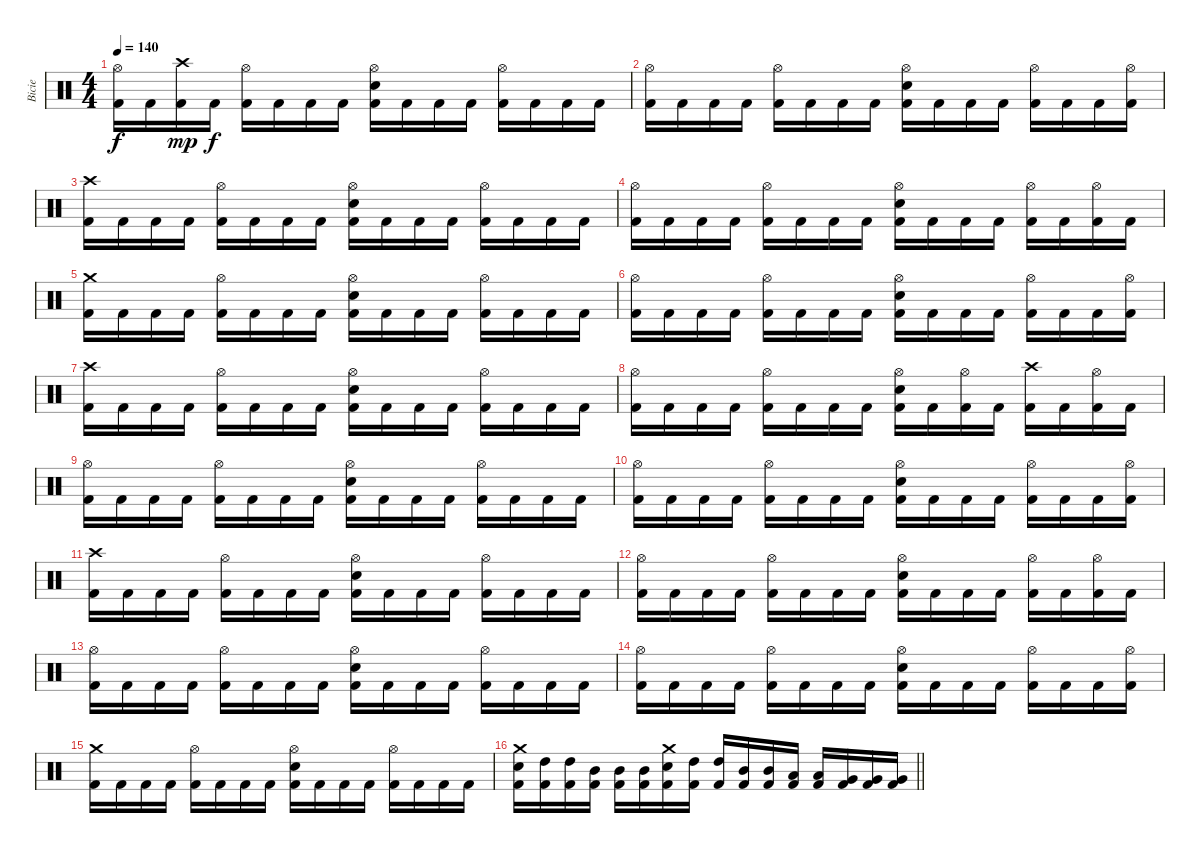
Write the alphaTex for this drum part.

\track ("Bicie" "Bicie") {instrument percussion}
\staff {score}
\articulation defaults
\ts (4 4)
\tempo 140
\clef neutral
\ks c
("Hi-Hat (open)" "Kick (hit) 2").16{dy f} "Kick (hit) 2".16 ("Crash high (hit)" "Kick (hit) 2").16{dy mp} "Kick (hit) 2".16{dy f} ("Hi-Hat (open)" "Kick (hit) 2").16 "Kick (hit) 2".16 "Kick (hit) 2".16 "Kick (hit) 2".16 ("Hi-Hat (open)" "Snare (hit) 2" "Kick (hit) 2").16 "Kick (hit) 2".16 "Kick (hit) 2".16 "Kick (hit) 2".16 ("Hi-Hat (open)" "Kick (hit) 2").16 "Kick (hit) 2".16 "Kick (hit) 2".16 "Kick (hit) 2".16 |
("Hi-Hat (open)" "Kick (hit) 2").16 "Kick (hit) 2".16 "Kick (hit) 2".16 "Kick (hit) 2".16 ("Hi-Hat (open)" "Kick (hit) 2").16 "Kick (hit) 2".16 "Kick (hit) 2".16 "Kick (hit) 2".16 ("Hi-Hat (open)" "Snare (hit) 2" "Kick (hit) 2").16 "Kick (hit) 2".16 "Kick (hit) 2".16 "Kick (hit) 2".16 ("Hi-Hat (open)" "Kick (hit) 2").16 "Kick (hit) 2".16 "Kick (hit) 2".16 ("Hi-Hat (open)" "Kick (hit) 2").16 |
("Crash high (hit)" "Kick (hit) 2").16 "Kick (hit) 2".16 "Kick (hit) 2".16 "Kick (hit) 2".16 ("Hi-Hat (open)" "Kick (hit) 2").16 "Kick (hit) 2".16 "Kick (hit) 2".16 "Kick (hit) 2".16 ("Hi-Hat (open)" "Snare (hit) 2" "Kick (hit) 2").16 "Kick (hit) 2".16 "Kick (hit) 2".16 "Kick (hit) 2".16 ("Hi-Hat (open)" "Kick (hit) 2").16 "Kick (hit) 2".16 "Kick (hit) 2".16 "Kick (hit) 2".16 |
("Hi-Hat (open)" "Kick (hit) 2").16 "Kick (hit) 2".16 "Kick (hit) 2".16 "Kick (hit) 2".16 ("Hi-Hat (open)" "Kick (hit) 2").16 "Kick (hit) 2".16 "Kick (hit) 2".16 "Kick (hit) 2".16 ("Hi-Hat (open)" "Snare (hit) 2" "Kick (hit) 2").16 "Kick (hit) 2".16 "Kick (hit) 2".16 "Kick (hit) 2".16 ("Hi-Hat (open)" "Kick (hit) 2").16 "Kick (hit) 2".16 ("Hi-Hat (open)" "Kick (hit) 2").16 "Kick (hit) 2".16 |
("Crash medium (hit)" "Kick (hit) 2").16 "Kick (hit) 2".16 "Kick (hit) 2".16 "Kick (hit) 2".16 ("Hi-Hat (open)" "Kick (hit) 2").16 "Kick (hit) 2".16 "Kick (hit) 2".16 "Kick (hit) 2".16 ("Hi-Hat (open)" "Snare (hit) 2" "Kick (hit) 2").16 "Kick (hit) 2".16 "Kick (hit) 2".16 "Kick (hit) 2".16 ("Hi-Hat (open)" "Kick (hit) 2").16 "Kick (hit) 2".16 "Kick (hit) 2".16 "Kick (hit) 2".16 |
("Hi-Hat (open)" "Kick (hit) 2").16 "Kick (hit) 2".16 "Kick (hit) 2".16 "Kick (hit) 2".16 ("Hi-Hat (open)" "Kick (hit) 2").16 "Kick (hit) 2".16 "Kick (hit) 2".16 "Kick (hit) 2".16 ("Hi-Hat (open)" "Snare (hit) 2" "Kick (hit) 2").16 "Kick (hit) 2".16 "Kick (hit) 2".16 "Kick (hit) 2".16 ("Hi-Hat (open)" "Kick (hit) 2").16 "Kick (hit) 2".16 "Kick (hit) 2".16 ("Hi-Hat (open)" "Kick (hit) 2").16 |
("Crash high (hit)" "Kick (hit) 2").16 "Kick (hit) 2".16 "Kick (hit) 2".16 "Kick (hit) 2".16 ("Hi-Hat (open)" "Kick (hit) 2").16 "Kick (hit) 2".16 "Kick (hit) 2".16 "Kick (hit) 2".16 ("Hi-Hat (open)" "Snare (hit) 2" "Kick (hit) 2").16 "Kick (hit) 2".16 "Kick (hit) 2".16 "Kick (hit) 2".16 ("Hi-Hat (open)" "Kick (hit) 2").16 "Kick (hit) 2".16 "Kick (hit) 2".16 "Kick (hit) 2".16 |
("Hi-Hat (open)" "Kick (hit) 2").16 "Kick (hit) 2".16 "Kick (hit) 2".16 "Kick (hit) 2".16 ("Hi-Hat (open)" "Kick (hit) 2").16 "Kick (hit) 2".16 "Kick (hit) 2".16 "Kick (hit) 2".16 ("Hi-Hat (open)" "Snare (hit) 2" "Kick (hit) 2").16 "Kick (hit) 2".16 ("Hi-Hat (open)" "Kick (hit) 2").16 "Kick (hit) 2".16 ("Crash high (hit)" "Kick (hit) 2").16 "Kick (hit) 2".16 ("Hi-Hat (open)" "Kick (hit) 2").16 "Kick (hit) 2".16 |
("Hi-Hat (open)" "Kick (hit) 2").16 "Kick (hit) 2".16 "Kick (hit) 2".16 "Kick (hit) 2".16 ("Hi-Hat (open)" "Kick (hit) 2").16 "Kick (hit) 2".16 "Kick (hit) 2".16 "Kick (hit) 2".16 ("Hi-Hat (open)" "Snare (hit) 2" "Kick (hit) 2").16 "Kick (hit) 2".16 "Kick (hit) 2".16 "Kick (hit) 2".16 ("Hi-Hat (open)" "Kick (hit) 2").16 "Kick (hit) 2".16 "Kick (hit) 2".16 "Kick (hit) 2".16 |
("Hi-Hat (open)" "Kick (hit) 2").16 "Kick (hit) 2".16 "Kick (hit) 2".16 "Kick (hit) 2".16 ("Hi-Hat (open)" "Kick (hit) 2").16 "Kick (hit) 2".16 "Kick (hit) 2".16 "Kick (hit) 2".16 ("Hi-Hat (open)" "Snare (hit) 2" "Kick (hit) 2").16 "Kick (hit) 2".16 "Kick (hit) 2".16 "Kick (hit) 2".16 ("Hi-Hat (open)" "Kick (hit) 2").16 "Kick (hit) 2".16 "Kick (hit) 2".16 ("Hi-Hat (open)" "Kick (hit) 2").16 |
("Crash high (hit)" "Kick (hit) 2").16 "Kick (hit) 2".16 "Kick (hit) 2".16 "Kick (hit) 2".16 ("Hi-Hat (open)" "Kick (hit) 2").16 "Kick (hit) 2".16 "Kick (hit) 2".16 "Kick (hit) 2".16 ("Hi-Hat (open)" "Snare (hit) 2" "Kick (hit) 2").16 "Kick (hit) 2".16 "Kick (hit) 2".16 "Kick (hit) 2".16 ("Hi-Hat (open)" "Kick (hit) 2").16 "Kick (hit) 2".16 "Kick (hit) 2".16 "Kick (hit) 2".16 |
("Hi-Hat (open)" "Kick (hit) 2").16 "Kick (hit) 2".16 "Kick (hit) 2".16 "Kick (hit) 2".16 ("Hi-Hat (open)" "Kick (hit) 2").16 "Kick (hit) 2".16 "Kick (hit) 2".16 "Kick (hit) 2".16 ("Hi-Hat (open)" "Snare (hit) 2" "Kick (hit) 2").16 "Kick (hit) 2".16 "Kick (hit) 2".16 "Kick (hit) 2".16 ("Hi-Hat (open)" "Kick (hit) 2").16 "Kick (hit) 2".16 ("Hi-Hat (open)" "Kick (hit) 2").16 "Kick (hit) 2".16 |
("Hi-Hat (open)" "Kick (hit) 2").16 "Kick (hit) 2".16 "Kick (hit) 2".16 "Kick (hit) 2".16 ("Hi-Hat (open)" "Kick (hit) 2").16 "Kick (hit) 2".16 "Kick (hit) 2".16 "Kick (hit) 2".16 ("Hi-Hat (open)" "Snare (hit) 2" "Kick (hit) 2").16 "Kick (hit) 2".16 "Kick (hit) 2".16 "Kick (hit) 2".16 ("Hi-Hat (open)" "Kick (hit) 2").16 "Kick (hit) 2".16 "Kick (hit) 2".16 "Kick (hit) 2".16 |
("Hi-Hat (open)" "Kick (hit) 2").16 "Kick (hit) 2".16 "Kick (hit) 2".16 "Kick (hit) 2".16 ("Hi-Hat (open)" "Kick (hit) 2").16 "Kick (hit) 2".16 "Kick (hit) 2".16 "Kick (hit) 2".16 ("Hi-Hat (open)" "Snare (hit) 2" "Kick (hit) 2").16 "Kick (hit) 2".16 "Kick (hit) 2".16 "Kick (hit) 2".16 ("Hi-Hat (open)" "Kick (hit) 2").16 "Kick (hit) 2".16 "Kick (hit) 2".16 ("Hi-Hat (open)" "Kick (hit) 2").16 |
("Crash medium (hit)" "Kick (hit) 2").16 "Kick (hit) 2".16 "Kick (hit) 2".16 "Kick (hit) 2".16 ("Hi-Hat (open)" "Kick (hit) 2").16 "Kick (hit) 2".16 "Kick (hit) 2".16 "Kick (hit) 2".16 ("Hi-Hat (open)" "Snare (hit) 2" "Kick (hit) 2").16 "Kick (hit) 2".16 "Kick (hit) 2".16 "Kick (hit) 2".16 ("Hi-Hat (open)" "Kick (hit) 2").16 "Kick (hit) 2".16 "Kick (hit) 2".16 "Kick (hit) 2".16 |
\barLineRight lightlight
("Crash medium (hit)" "Snare (hit) 2" "Kick (hit) 2").16 ("High Tom (hit)" "Kick (hit) 2").16 ("High Tom (hit)" "Kick (hit) 2").16 ("Mid Tom (hit)" "Kick (hit) 2").16 ("Mid Tom (hit)" "Kick (hit) 2").16 ("Mid Tom (hit)" "Kick (hit) 2").16 ("Crash medium (hit)" "Snare (hit) 2" "Kick (hit) 2").16 ("High Tom (hit)" "Kick (hit) 2").16 ("High Tom (hit)" "Kick (hit) 2").16 ("Mid Tom (hit)" "Kick (hit) 2").16 ("Mid Tom (hit)" "Kick (hit) 2").16 ("Low Tom (hit)" "Kick (hit) 2").16 ("Low Tom (hit)" "Kick (hit) 2").16 ("Very Low Tom (hit)" "Kick (hit) 2").16 ("Very Low Tom (hit)" "Kick (hit) 2").16 ("Very Low Tom (hit)" "Kick (hit) 2").16
